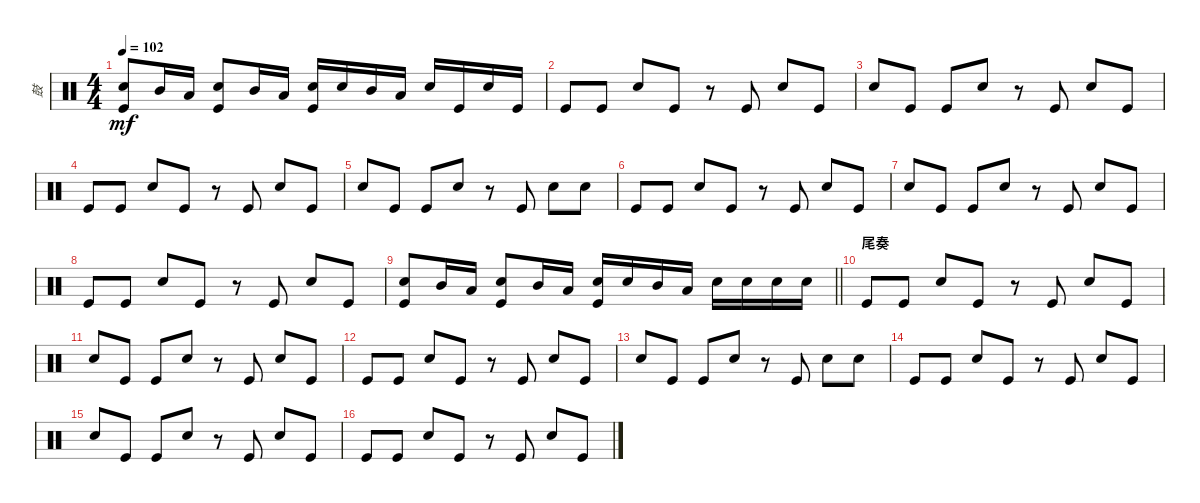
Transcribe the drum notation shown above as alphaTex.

\track ("鼓" "鼓") {instrument percussion}
\staff {score}
\articulation defaults
\ts (4 4)
\tempo 102
\clef neutral
\ks c
("Electric Snare (hit)" "Kick (hit)").8{dy mf} "Mid Tom (hit)".16 "Low Tom (hit)".16 ("Electric Snare (hit)" "Kick (hit)").8 "Mid Tom (hit)".16 "Low Tom (hit)".16 ("Electric Snare (hit)" "Kick (hit)").16 "Electric Snare (hit)".16 "Mid Tom (hit)".16 "Low Tom (hit)".16 "Electric Snare (hit)".16 "Kick (hit)".16 "Electric Snare (hit)".16 "Kick (hit)".16 |
"Kick (hit)".8 "Kick (hit)".8 "Electric Snare (hit)".8 "Kick (hit)".8 r.8 "Kick (hit)".8 "Electric Snare (hit)".8 "Kick (hit)".8 |
"Electric Snare (hit)".8 "Kick (hit)".8 "Kick (hit)".8 "Electric Snare (hit)".8 r.8 "Kick (hit)".8 "Electric Snare (hit)".8 "Kick (hit)".8 |
"Kick (hit)".8 "Kick (hit)".8 "Electric Snare (hit)".8 "Kick (hit)".8 r.8 "Kick (hit)".8 "Electric Snare (hit)".8 "Kick (hit)".8 |
"Electric Snare (hit)".8 "Kick (hit)".8 "Kick (hit)".8 "Electric Snare (hit)".8 r.8 "Kick (hit)".8 "Electric Snare (hit)".8 "Electric Snare (hit)".8 |
"Kick (hit)".8 "Kick (hit)".8 "Electric Snare (hit)".8 "Kick (hit)".8 r.8 "Kick (hit)".8 "Electric Snare (hit)".8 "Kick (hit)".8 |
"Electric Snare (hit)".8 "Kick (hit)".8 "Kick (hit)".8 "Electric Snare (hit)".8 r.8 "Kick (hit)".8 "Electric Snare (hit)".8 "Kick (hit)".8 |
"Kick (hit)".8 "Kick (hit)".8 "Electric Snare (hit)".8 "Kick (hit)".8 r.8 "Kick (hit)".8 "Electric Snare (hit)".8 "Kick (hit)".8 |
\barLineRight lightlight
("Electric Snare (hit)" "Kick (hit)").8 "Mid Tom (hit)".16 "Low Tom (hit)".16 ("Electric Snare (hit)" "Kick (hit)").8 "Mid Tom (hit)".16 "Low Tom (hit)".16 ("Electric Snare (hit)" "Kick (hit)").16 "Electric Snare (hit)".16 "Mid Tom (hit)".16 "Low Tom (hit)".16 "Electric Snare (hit)".16 "Electric Snare (hit)".16 "Electric Snare (hit)".16 "Electric Snare (hit)".16 |
\section ("" "尾奏")
"Kick (hit)".8 "Kick (hit)".8 "Electric Snare (hit)".8 "Kick (hit)".8 r.8 "Kick (hit)".8 "Electric Snare (hit)".8 "Kick (hit)".8 |
"Electric Snare (hit)".8 "Kick (hit)".8 "Kick (hit)".8 "Electric Snare (hit)".8 r.8 "Kick (hit)".8 "Electric Snare (hit)".8 "Kick (hit)".8 |
"Kick (hit)".8 "Kick (hit)".8 "Electric Snare (hit)".8 "Kick (hit)".8 r.8 "Kick (hit)".8 "Electric Snare (hit)".8 "Kick (hit)".8 |
"Electric Snare (hit)".8 "Kick (hit)".8 "Kick (hit)".8 "Electric Snare (hit)".8 r.8 "Kick (hit)".8 "Electric Snare (hit)".8 "Electric Snare (hit)".8 |
"Kick (hit)".8 "Kick (hit)".8 "Electric Snare (hit)".8 "Kick (hit)".8 r.8 "Kick (hit)".8 "Electric Snare (hit)".8 "Kick (hit)".8 |
"Electric Snare (hit)".8 "Kick (hit)".8 "Kick (hit)".8 "Electric Snare (hit)".8 r.8 "Kick (hit)".8 "Electric Snare (hit)".8 "Kick (hit)".8 |
"Kick (hit)".8 "Kick (hit)".8 "Electric Snare (hit)".8 "Kick (hit)".8 r.8 "Kick (hit)".8 "Electric Snare (hit)".8 "Kick (hit)".8
